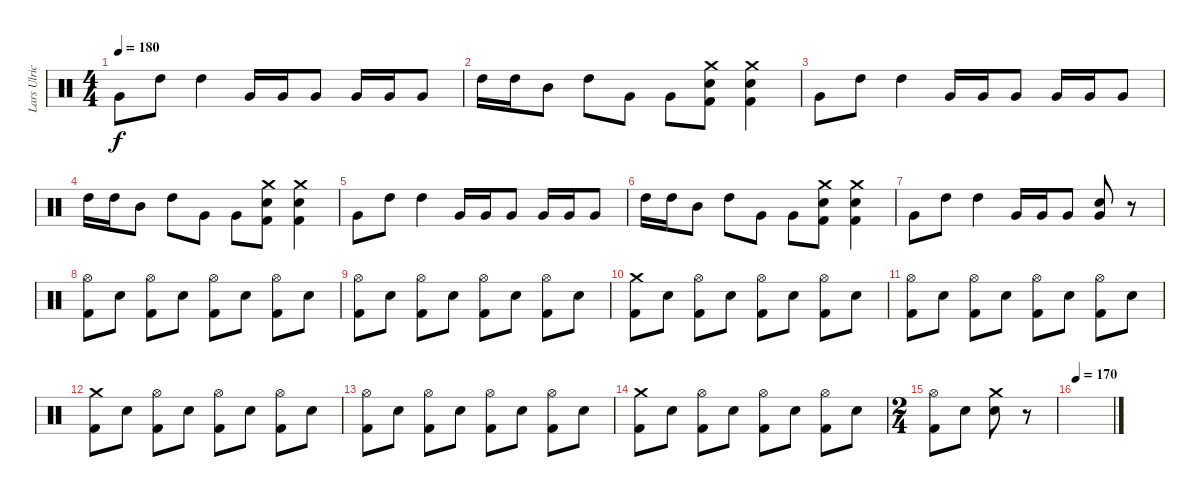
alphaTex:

\track ("Lars Ulrich" "Lars Ulric") {instrument percussion}
\staff {score}
\articulation defaults
\ts (4 4)
\tempo 180
\clef neutral
\ks c "Very Low Tom (hit)".8{dy f} "High Tom (hit)".8 "High Tom (hit)".4 "Very Low Tom (hit)".16 "Very Low Tom (hit)".16 "Very Low Tom (hit)".8 "Very Low Tom (hit)".16 "Very Low Tom (hit)".16 "Very Low Tom (hit)".8
|
"High Tom (hit)".16 "High Tom (hit)".16 "Mid Tom (hit)".8 "High Tom (hit)".8 "Very Low Tom (hit)".8 "Very Low Tom (hit)".8 ("Crash medium (hit)" "Electric Snare (hit)" "Kick (hit) 2").8 ("Crash medium (hit)" "Electric Snare (hit)" "Kick (hit) 2").4 |
"Very Low Tom (hit)".8 "High Tom (hit)".8 "High Tom (hit)".4 "Very Low Tom (hit)".16 "Very Low Tom (hit)".16 "Very Low Tom (hit)".8 "Very Low Tom (hit)".16 "Very Low Tom (hit)".16 "Very Low Tom (hit)".8 |
"High Tom (hit)".16 "High Tom (hit)".16 "Mid Tom (hit)".8 "High Tom (hit)".8 "Very Low Tom (hit)".8 "Very Low Tom (hit)".8 ("Crash medium (hit)" "Electric Snare (hit)" "Kick (hit) 2").8 ("Crash medium (hit)" "Electric Snare (hit)" "Kick (hit) 2").4 |
"Very Low Tom (hit)".8 "High Tom (hit)".8 "High Tom (hit)".4 "Very Low Tom (hit)".16 "Very Low Tom (hit)".16 "Very Low Tom (hit)".8 "Very Low Tom (hit)".16 "Very Low Tom (hit)".16 "Very Low Tom (hit)".8 |
"High Tom (hit)".16 "High Tom (hit)".16 "Mid Tom (hit)".8 "High Tom (hit)".8 "Very Low Tom (hit)".8 "Very Low Tom (hit)".8 ("Crash medium (hit)" "Electric Snare (hit)" "Kick (hit) 2").8 ("Crash medium (hit)" "Electric Snare (hit)" "Kick (hit) 2").4 |
"Very Low Tom (hit)".8 "High Tom (hit)".8 "High Tom (hit)".4 "Very Low Tom (hit)".16 "Very Low Tom (hit)".16 "Very Low Tom (hit)".8 ("Very Low Tom (hit)" "Electric Snare (hit)").8 r.8 |
("Hi-Hat (open)" "Kick (hit) 2").8 "Electric Snare (hit)".8 ("Hi-Hat (open)" "Kick (hit) 2").8 "Electric Snare (hit)".8 ("Hi-Hat (open)" "Kick (hit) 2").8 "Electric Snare (hit)".8 ("Hi-Hat (open)" "Kick (hit) 2").8 "Electric Snare (hit)".8 |
("Hi-Hat (open)" "Kick (hit) 2").8 "Electric Snare (hit)".8 ("Hi-Hat (open)" "Kick (hit) 2").8 "Electric Snare (hit)".8 ("Hi-Hat (open)" "Kick (hit) 2").8 "Electric Snare (hit)".8 ("Hi-Hat (open)" "Kick (hit) 2").8 "Electric Snare (hit)".8 |
("Crash medium (hit)" "Kick (hit) 2").8 "Electric Snare (hit)".8 ("Hi-Hat (open)" "Kick (hit) 2").8 "Electric Snare (hit)".8 ("Hi-Hat (open)" "Kick (hit) 2").8 "Electric Snare (hit)".8 ("Hi-Hat (open)" "Kick (hit) 2").8 "Electric Snare (hit)".8 |
("Hi-Hat (open)" "Kick (hit) 2").8 "Electric Snare (hit)".8 ("Hi-Hat (open)" "Kick (hit) 2").8 "Electric Snare (hit)".8 ("Hi-Hat (open)" "Kick (hit) 2").8 "Electric Snare (hit)".8 ("Hi-Hat (open)" "Kick (hit) 2").8 "Electric Snare (hit)".8 |
("Crash medium (hit)" "Kick (hit) 2").8 "Electric Snare (hit)".8 ("Hi-Hat (open)" "Kick (hit) 2").8 "Electric Snare (hit)".8 ("Hi-Hat (open)" "Kick (hit) 2").8 "Electric Snare (hit)".8 ("Hi-Hat (open)" "Kick (hit) 2").8 "Electric Snare (hit)".8 |
("Hi-Hat (open)" "Kick (hit) 2").8 "Electric Snare (hit)".8 ("Hi-Hat (open)" "Kick (hit) 2").8 "Electric Snare (hit)".8 ("Hi-Hat (open)" "Kick (hit) 2").8 "Electric Snare (hit)".8 ("Hi-Hat (open)" "Kick (hit) 2").8 "Electric Snare (hit)".8 |
("Crash medium (hit)" "Kick (hit) 2").8 "Electric Snare (hit)".8 ("Hi-Hat (open)" "Kick (hit) 2").8 "Electric Snare (hit)".8 ("Hi-Hat (open)" "Kick (hit) 2").8 "Electric Snare (hit)".8 ("Hi-Hat (open)" "Kick (hit) 2").8 "Electric Snare (hit)".8 |
\ts (2 4)
("Hi-Hat (open)" "Kick (hit) 2").8 "Electric Snare (hit)".8 ("Crash medium (hit)" "Electric Snare (hit)").8 r.8 |
\tempo 170
